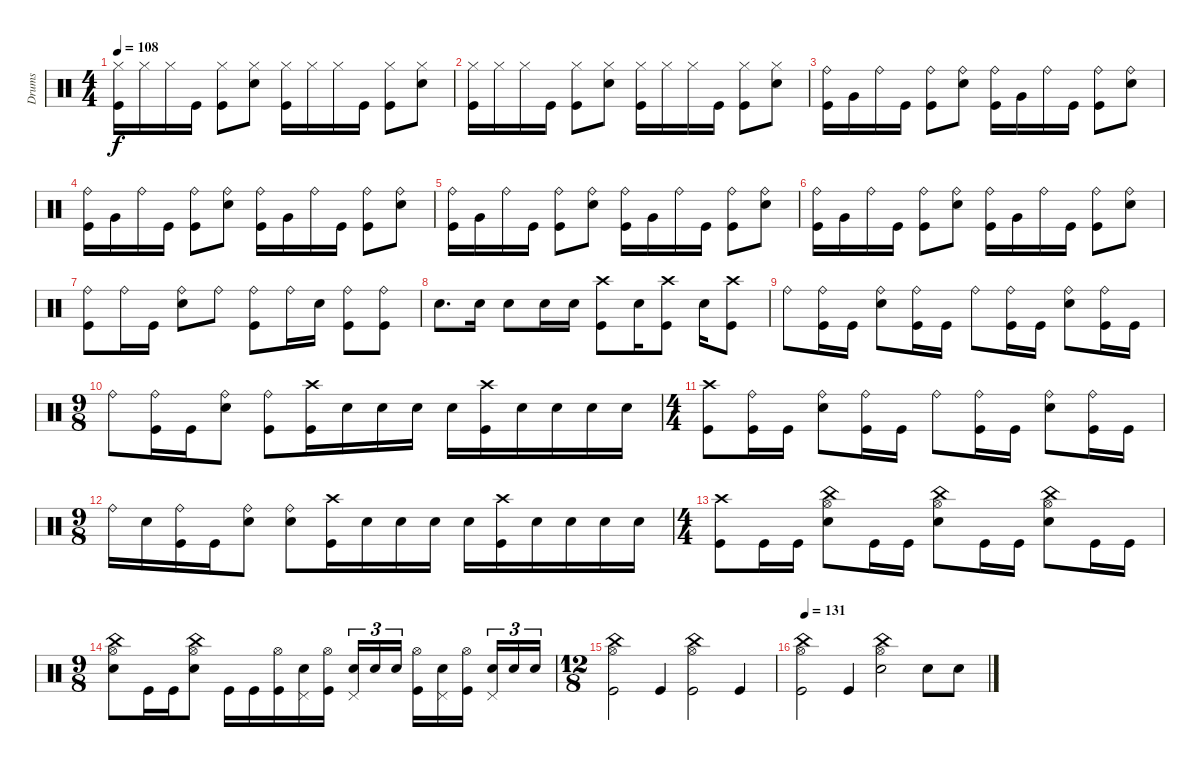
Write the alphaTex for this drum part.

\track ("Drums" "Drums") {instrument percussion}
\staff {score}
\articulation defaults
\ts (4 4)
\tempo 108
\clef neutral
\ks c
("Kick (hit)" "Hi-Hat (closed)").16{dy f} "Hi-Hat (closed)".16 "Hi-Hat (closed)".16 "Kick (hit)".16 ("Kick (hit)" "Hi-Hat (closed)").8 ("Electric Snare (hit)" "Hi-Hat (closed)").8 ("Kick (hit)" "Hi-Hat (closed)").16 "Hi-Hat (closed)".16 "Hi-Hat (closed)".16 "Kick (hit)".16 ("Kick (hit)" "Hi-Hat (closed)").8 ("Electric Snare (hit)" "Hi-Hat (closed)").8 |
("Kick (hit)" "Hi-Hat (closed)").16 "Hi-Hat (closed)".16 "Hi-Hat (closed)".16 "Kick (hit)".16 ("Kick (hit)" "Hi-Hat (closed)").8 ("Electric Snare (hit)" "Hi-Hat (closed)").8 ("Kick (hit)" "Hi-Hat (closed)").16 "Hi-Hat (closed)".16 "Hi-Hat (closed)".16 "Kick (hit)".16 ("Kick (hit)" "Hi-Hat (closed)").8 ("Electric Snare (hit)" "Hi-Hat (closed)").8 |
("Ride (bell)" "Kick (hit)").16 "Very Low Tom (hit)".16 "Ride (bell)".16 "Kick (hit)".16 ("Ride (bell)" "Kick (hit)").8 ("Ride (bell)" "Electric Snare (hit)").8 ("Ride (bell)" "Kick (hit)").16 "Very Low Tom (hit)".16 "Ride (bell)".16 "Kick (hit)".16 ("Ride (bell)" "Kick (hit)").8 ("Ride (bell)" "Electric Snare (hit)").8 |
("Ride (bell)" "Kick (hit)").16 "Very Low Tom (hit)".16 "Ride (bell)".16 "Kick (hit)".16 ("Ride (bell)" "Kick (hit)").8 ("Ride (bell)" "Electric Snare (hit)").8 ("Ride (bell)" "Kick (hit)").16 "Very Low Tom (hit)".16 "Ride (bell)".16 "Kick (hit)".16 ("Ride (bell)" "Kick (hit)").8 ("Ride (bell)" "Electric Snare (hit)").8 |
("Ride (bell)" "Kick (hit)").16 "Very Low Tom (hit)".16 "Ride (bell)".16 "Kick (hit)".16 ("Ride (bell)" "Kick (hit)").8 ("Ride (bell)" "Electric Snare (hit)").8 ("Ride (bell)" "Kick (hit)").16 "Very Low Tom (hit)".16 "Ride (bell)".16 "Kick (hit)".16 ("Ride (bell)" "Kick (hit)").8 ("Ride (bell)" "Electric Snare (hit)").8 |
("Ride (bell)" "Kick (hit)").16 "Very Low Tom (hit)".16 "Ride (bell)".16 "Kick (hit)".16 ("Ride (bell)" "Kick (hit)").8 ("Ride (bell)" "Electric Snare (hit)").8 ("Ride (bell)" "Kick (hit)").16 "Very Low Tom (hit)".16 "Ride (bell)".16 "Kick (hit)".16 ("Ride (bell)" "Kick (hit)").8 ("Ride (bell)" "Electric Snare (hit)").8 |
("Ride (bell)" "Kick (hit)").8 "Ride (bell)".16 "Kick (hit)".16 ("Ride (bell)" "Electric Snare (hit)").8 "Ride (bell)".8 ("Ride (bell)" "Kick (hit)").8 "Ride (bell)".16 "Electric Snare (hit)".16 ("Ride (bell)" "Kick (hit)").8 ("Ride (bell)" "Kick (hit)").8 |
"Snare (hit) 2".8{d} "Snare (hit) 2".16 "Snare (hit) 2".8 "Snare (hit) 2".16 "Snare (hit) 2".16 ("Kick (hit)" "Crash high (hit)").8 "Electric Snare (hit)".16 ("Kick (hit)" "Crash high (hit)").8 "Electric Snare (hit)".16 ("Kick (hit)" "Crash high (hit)").8 |
"Ride (bell)".8 ("Ride (bell)" "Kick (hit)").16 "Kick (hit)".16 ("Ride (bell)" "Snare (hit) 2").8 ("Ride (bell)" "Kick (hit)").16 "Kick (hit)".16 "Ride (bell)".8 ("Ride (bell)" "Kick (hit)").16 "Kick (hit)".16 ("Ride (bell)" "Snare (hit) 2").8 ("Ride (bell)" "Kick (hit)").16 "Kick (hit)".16 |
\ts (9 8)
"Ride (bell)".8 ("Ride (bell)" "Kick (hit)").16 "Kick (hit)".16 ("Snare (hit) 2" "Ride (bell)").8 ("Kick (hit)" "Ride (bell)").8 ("Kick (hit)" "Crash high (hit)").16 "Snare (hit) 2".16 "Snare (hit) 2".16 "Snare (hit) 2".16 "Snare (hit) 2".16 ("Kick (hit)" "Crash high (hit)").16 "Snare (hit) 2".16 "Snare (hit) 2".16 "Snare (hit) 2".16 "Snare (hit) 2".16 |
\ts (4 4)
("Kick (hit)" "Crash high (hit)").8 ("Ride (bell)" "Kick (hit)").16 "Kick (hit)".16 ("Ride (bell)" "Snare (hit) 2").8 ("Ride (bell)" "Kick (hit)").16 "Kick (hit)".16 "Ride (bell)".8 ("Ride (bell)" "Kick (hit)").16 "Kick (hit)".16 ("Ride (bell)" "Snare (hit) 2").8 ("Ride (bell)" "Kick (hit)").16 "Kick (hit)".16 |
\ts (9 8)
"Ride (bell)".16 "Snare (hit) 2".16 ("Ride (bell)" "Kick (hit)").16 "Kick (hit)".16 ("Snare (hit) 2" "Ride (bell)").8 ("Snare (hit) 2" "Ride (bell)").8 ("Kick (hit)" "Crash high (hit)").16 "Snare (hit) 2".16 "Snare (hit) 2".16 "Snare (hit) 2".16 "Snare (hit) 2".16 ("Kick (hit)" "Crash high (hit)").16 "Snare (hit) 2".16 "Snare (hit) 2".16 "Snare (hit) 2".16 "Snare (hit) 2".16 |
\ts (4 4)
("Crash high (hit)" "Kick (hit)").8 "Kick (hit)".16 "Kick (hit)".16 ("Hi-Hat (open)" "China (hit)" "Snare (hit) 2").8 "Kick (hit)".16 "Kick (hit)".16 ("Hi-Hat (open)" "China (hit)" "Snare (hit) 2").8 "Kick (hit)".16 "Kick (hit)".16 ("Hi-Hat (open)" "China (hit)" "Snare (hit) 2").8 "Kick (hit)".16 "Kick (hit)".16 |
\ts (9 8)
("Snare (hit) 2" "Hi-Hat (open)" "China (hit)").8 "Kick (hit)".16 "Kick (hit)".16 ("Snare (hit) 2" "Hi-Hat (open)" "China (hit)").8 "Kick (hit)".16 "Kick (hit)".16 ("Hi-Hat (open)" "Kick (hit)").16 ("Electric Snare (hit)" "Pedal Hi-Hat (hit)").16 ("Hi-Hat (open)" "Kick (hit)").16 ("Electric Snare (hit)" "Pedal Hi-Hat (hit)").16{tu (3 2)} "Electric Snare (hit)".16{tu (3 2)} "Electric Snare (hit)".16{tu (3 2)} ("Hi-Hat (open)" "Kick (hit)").16 ("Electric Snare (hit)" "Pedal Hi-Hat (hit)").16 ("Hi-Hat (open)" "Kick (hit)").16 ("Electric Snare (hit)" "Pedal Hi-Hat (hit)").16{tu (3 2)} "Electric Snare (hit)".16{tu (3 2)} "Electric Snare (hit)".16{tu (3 2)} |
\ts (12 8)
("Kick (hit)" "Hi-Hat (open)" "China (hit)").2 "Kick (hit)".4 ("Kick (hit)" "Hi-Hat (open)" "China (hit)").2 "Kick (hit)".4 |
\tempo 131
("Kick (hit)" "Hi-Hat (open)" "China (hit)").2 "Kick (hit)".4 ("Snare (hit) 2" "Hi-Hat (open)" "China (hit)").2 "Snare (hit) 2".8 "Snare (hit) 2".8
